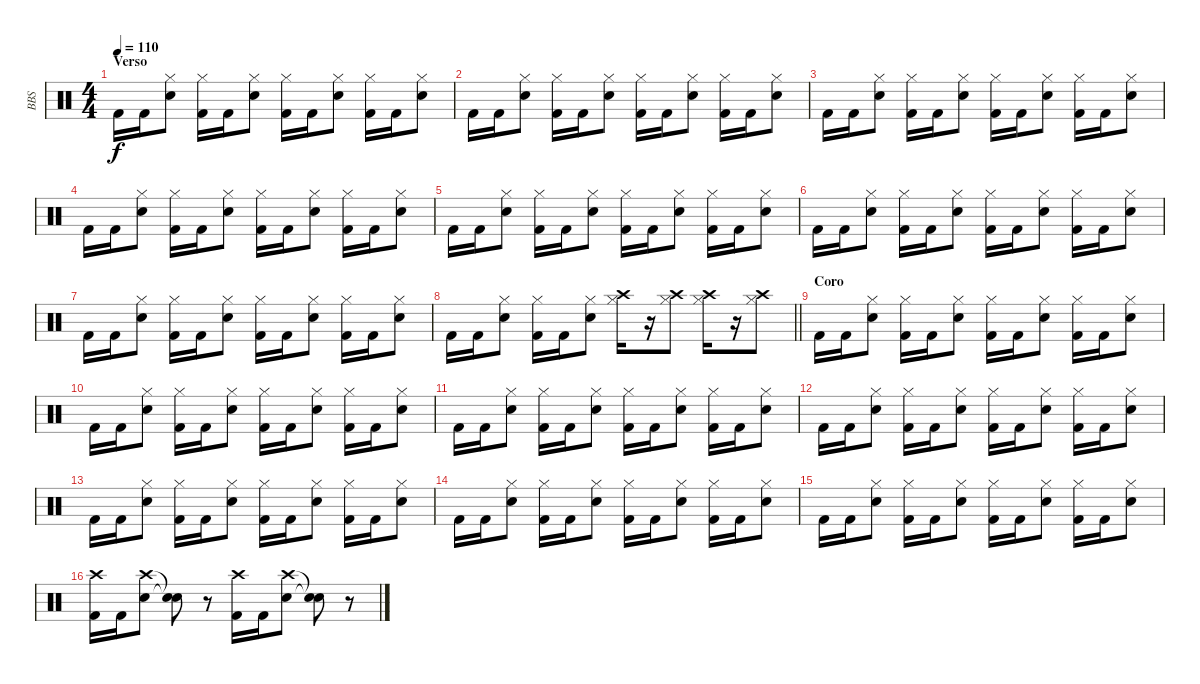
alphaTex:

\track ("BBS" "BBS") {instrument percussion}
\staff {score}
\articulation defaults
\ts (4 4)
\section ("" "Verso")
\tempo 110
\clef neutral
\ks c "Kick (hit) 2".16{dy f} "Kick (hit) 2".16
("Hi-Hat (closed)" "Snare (hit) 2").8 ("Hi-Hat (closed)" "Kick (hit) 2").16 "Kick (hit) 2".16 ("Hi-Hat (closed)" "Snare (hit) 2").8 ("Hi-Hat (closed)" "Kick (hit) 2").16 "Kick (hit) 2".16 ("Hi-Hat (closed)" "Snare (hit) 2").8 ("Hi-Hat (closed)" "Kick (hit) 2").16 "Kick (hit) 2".16 ("Hi-Hat (closed)" "Snare (hit) 2").8 |
"Kick (hit) 2".16 "Kick (hit) 2".16 ("Hi-Hat (closed)" "Snare (hit) 2").8 ("Hi-Hat (closed)" "Kick (hit) 2").16 "Kick (hit) 2".16 ("Hi-Hat (closed)" "Snare (hit) 2").8 ("Hi-Hat (closed)" "Kick (hit) 2").16 "Kick (hit) 2".16 ("Hi-Hat (closed)" "Snare (hit) 2").8 ("Hi-Hat (closed)" "Kick (hit) 2").16 "Kick (hit) 2".16 ("Hi-Hat (closed)" "Snare (hit) 2").8 |
"Kick (hit) 2".16 "Kick (hit) 2".16 ("Hi-Hat (closed)" "Snare (hit) 2").8 ("Hi-Hat (closed)" "Kick (hit) 2").16 "Kick (hit) 2".16 ("Hi-Hat (closed)" "Snare (hit) 2").8 ("Hi-Hat (closed)" "Kick (hit) 2").16 "Kick (hit) 2".16 ("Hi-Hat (closed)" "Snare (hit) 2").8 ("Hi-Hat (closed)" "Kick (hit) 2").16 "Kick (hit) 2".16 ("Hi-Hat (closed)" "Snare (hit) 2").8 |
"Kick (hit) 2".16 "Kick (hit) 2".16 ("Hi-Hat (closed)" "Snare (hit) 2").8 ("Hi-Hat (closed)" "Kick (hit) 2").16 "Kick (hit) 2".16 ("Hi-Hat (closed)" "Snare (hit) 2").8 ("Hi-Hat (closed)" "Kick (hit) 2").16 "Kick (hit) 2".16 ("Hi-Hat (closed)" "Snare (hit) 2").8 ("Hi-Hat (closed)" "Kick (hit) 2").16 "Kick (hit) 2".16 ("Hi-Hat (closed)" "Snare (hit) 2").8 |
"Kick (hit) 2".16 "Kick (hit) 2".16 ("Hi-Hat (closed)" "Snare (hit) 2").8 ("Hi-Hat (closed)" "Kick (hit) 2").16 "Kick (hit) 2".16 ("Hi-Hat (closed)" "Snare (hit) 2").8 ("Hi-Hat (closed)" "Kick (hit) 2").16 "Kick (hit) 2".16 ("Hi-Hat (closed)" "Snare (hit) 2").8 ("Hi-Hat (closed)" "Kick (hit) 2").16 "Kick (hit) 2".16 ("Hi-Hat (closed)" "Snare (hit) 2").8 |
"Kick (hit) 2".16 "Kick (hit) 2".16 ("Hi-Hat (closed)" "Snare (hit) 2").8 ("Hi-Hat (closed)" "Kick (hit) 2").16 "Kick (hit) 2".16 ("Hi-Hat (closed)" "Snare (hit) 2").8 ("Hi-Hat (closed)" "Kick (hit) 2").16 "Kick (hit) 2".16 ("Hi-Hat (closed)" "Snare (hit) 2").8 ("Hi-Hat (closed)" "Kick (hit) 2").16 "Kick (hit) 2".16 ("Hi-Hat (closed)" "Snare (hit) 2").8 |
"Kick (hit) 2".16 "Kick (hit) 2".16 ("Hi-Hat (closed)" "Snare (hit) 2").8 ("Hi-Hat (closed)" "Kick (hit) 2").16 "Kick (hit) 2".16 ("Hi-Hat (closed)" "Snare (hit) 2").8 ("Hi-Hat (closed)" "Kick (hit) 2").16 "Kick (hit) 2".16 ("Hi-Hat (closed)" "Snare (hit) 2").8 ("Hi-Hat (closed)" "Kick (hit) 2").16 "Kick (hit) 2".16 ("Hi-Hat (closed)" "Snare (hit) 2").8 |
\barLineRight lightlight "Kick (hit) 2".16 "Kick (hit) 2".16
("Hi-Hat (closed)" "Snare (hit) 2").8 ("Hi-Hat (closed)" "Kick (hit) 2").16 "Kick (hit) 2".16 ("Hi-Hat (closed)" "Snare (hit) 2").8 ("Hi-Hat (closed)" "Crash high (hit)").16 r.16 ("Hi-Hat (closed)" "Crash high (hit)").8 ("Hi-Hat (closed)" "Crash high (hit)").16 r.16 ("Hi-Hat (closed)" "Crash high (hit)").8 |
\section ("" "Coro")
"Kick (hit) 2".16 "Kick (hit) 2".16 ("Hi-Hat (closed)" "Snare (hit) 2").8 ("Hi-Hat (closed)" "Kick (hit) 2").16 "Kick (hit) 2".16 ("Hi-Hat (closed)" "Snare (hit) 2").8 ("Hi-Hat (closed)" "Kick (hit) 2").16 "Kick (hit) 2".16 ("Hi-Hat (closed)" "Snare (hit) 2").8 ("Hi-Hat (closed)" "Kick (hit) 2").16 "Kick (hit) 2".16 ("Hi-Hat (closed)" "Snare (hit) 2").8 |
"Kick (hit) 2".16 "Kick (hit) 2".16 ("Hi-Hat (closed)" "Snare (hit) 2").8 ("Hi-Hat (closed)" "Kick (hit) 2").16 "Kick (hit) 2".16 ("Hi-Hat (closed)" "Snare (hit) 2").8 ("Hi-Hat (closed)" "Kick (hit) 2").16 "Kick (hit) 2".16 ("Hi-Hat (closed)" "Snare (hit) 2").8 ("Hi-Hat (closed)" "Kick (hit) 2").16 "Kick (hit) 2".16 ("Hi-Hat (closed)" "Snare (hit) 2").8 |
"Kick (hit) 2".16 "Kick (hit) 2".16 ("Hi-Hat (closed)" "Snare (hit) 2").8 ("Hi-Hat (closed)" "Kick (hit) 2").16 "Kick (hit) 2".16 ("Hi-Hat (closed)" "Snare (hit) 2").8 ("Hi-Hat (closed)" "Kick (hit) 2").16 "Kick (hit) 2".16 ("Hi-Hat (closed)" "Snare (hit) 2").8 ("Hi-Hat (closed)" "Kick (hit) 2").16 "Kick (hit) 2".16 ("Hi-Hat (closed)" "Snare (hit) 2").8 |
"Kick (hit) 2".16 "Kick (hit) 2".16 ("Hi-Hat (closed)" "Snare (hit) 2").8 ("Hi-Hat (closed)" "Kick (hit) 2").16 "Kick (hit) 2".16 ("Hi-Hat (closed)" "Snare (hit) 2").8 ("Hi-Hat (closed)" "Kick (hit) 2").16 "Kick (hit) 2".16 ("Hi-Hat (closed)" "Snare (hit) 2").8 ("Hi-Hat (closed)" "Kick (hit) 2").16 "Kick (hit) 2".16 ("Hi-Hat (closed)" "Snare (hit) 2").8 |
"Kick (hit) 2".16 "Kick (hit) 2".16 ("Hi-Hat (closed)" "Snare (hit) 2").8 ("Hi-Hat (closed)" "Kick (hit) 2").16 "Kick (hit) 2".16 ("Hi-Hat (closed)" "Snare (hit) 2").8 ("Hi-Hat (closed)" "Kick (hit) 2").16 "Kick (hit) 2".16 ("Hi-Hat (closed)" "Snare (hit) 2").8 ("Hi-Hat (closed)" "Kick (hit) 2").16 "Kick (hit) 2".16 ("Hi-Hat (closed)" "Snare (hit) 2").8 |
"Kick (hit) 2".16 "Kick (hit) 2".16 ("Hi-Hat (closed)" "Snare (hit) 2").8 ("Hi-Hat (closed)" "Kick (hit) 2").16 "Kick (hit) 2".16 ("Hi-Hat (closed)" "Snare (hit) 2").8 ("Hi-Hat (closed)" "Kick (hit) 2").16 "Kick (hit) 2".16 ("Hi-Hat (closed)" "Snare (hit) 2").8 ("Hi-Hat (closed)" "Kick (hit) 2").16 "Kick (hit) 2".16 ("Hi-Hat (closed)" "Snare (hit) 2").8 |
"Kick (hit) 2".16 "Kick (hit) 2".16 ("Hi-Hat (closed)" "Snare (hit) 2").8 ("Hi-Hat (closed)" "Kick (hit) 2").16 "Kick (hit) 2".16 ("Hi-Hat (closed)" "Snare (hit) 2").8 ("Hi-Hat (closed)" "Kick (hit) 2").16 "Kick (hit) 2".16 ("Hi-Hat (closed)" "Snare (hit) 2").8 ("Hi-Hat (closed)" "Kick (hit) 2").16 "Kick (hit) 2".16 ("Hi-Hat (closed)" "Snare (hit) 2").8 |
("Crash high (hit)" "Kick (hit) 2").16 "Kick (hit) 2".16 ("Crash high (hit)" "Snare (hit) 2").8 ("Snare (hit)"{t} "Snare (hit)"{t}).8 r.8 ("Crash high (hit)" "Kick (hit) 2").16 "Kick (hit) 2".16 ("Crash high (hit)" "Snare (hit) 2").8 ("Snare (hit)"{t} "Snare (hit)"{t}).8 r.8
